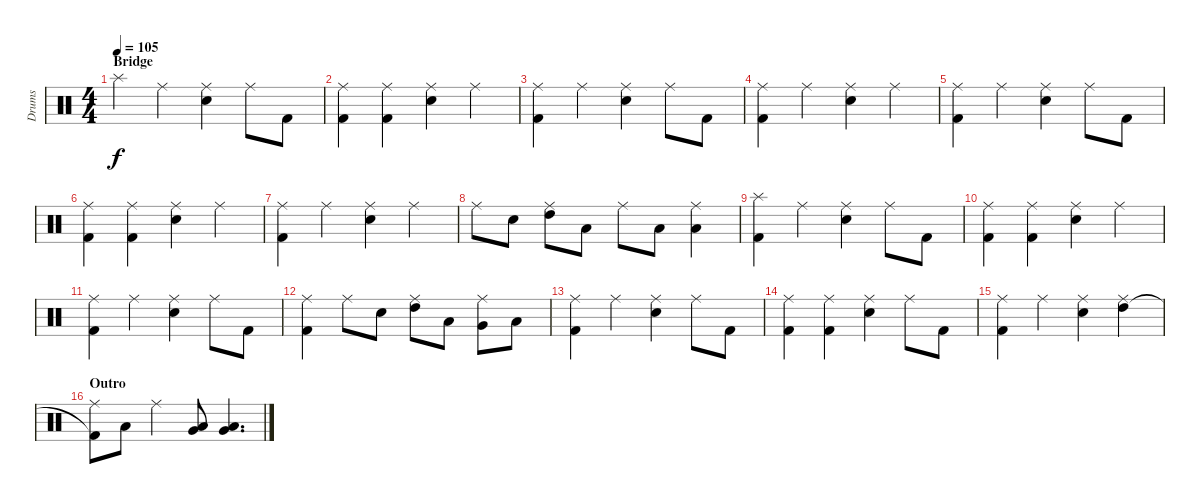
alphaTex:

\track ("Drums" "Drums") {instrument percussion}
\staff {score}
\articulation defaults
\ts (4 4)
\section ("" "Bridge")
\tempo 105
\clef neutral
\ks c "Splash (hit)".4{dy f} "Ride (middle)".4
("Ride (middle)" "Electric Snare (hit)").4 "Ride (middle)".8 "Kick (hit) 2".8 |
("Ride (middle)" "Kick (hit) 2").4 ("Ride (middle)" "Kick (hit) 2").4 ("Ride (middle)" "Electric Snare (hit)").4 "Ride (middle)".4 |
("Ride (middle)" "Kick (hit) 2").4 "Ride (middle)".4 ("Ride (middle)" "Electric Snare (hit)").4 "Ride (middle)".8 "Kick (hit) 2".8 |
("Ride (middle)" "Kick (hit) 2").4 "Ride (middle)".4 ("Ride (middle)" "Electric Snare (hit)").4 "Ride (middle)".4 |
("Ride (middle)" "Kick (hit) 2").4 "Ride (middle)".4 ("Ride (middle)" "Electric Snare (hit)").4 "Ride (middle)".8 "Kick (hit) 2".8 |
("Ride (middle)" "Kick (hit) 2").4 ("Ride (middle)" "Kick (hit) 2").4 ("Ride (middle)" "Electric Snare (hit)").4 "Ride (middle)".4 |
("Ride (middle)" "Kick (hit) 2").4 "Ride (middle)".4 ("Ride (middle)" "Electric Snare (hit)").4 "Ride (middle)".4 |
"Ride (middle)".8 "Electric Snare (hit)".8 ("Ride (middle)" "High Tom (hit)").8 "Low Tom (hit)".8 "Ride (middle)".8 "Low Tom (hit)".8 ("Ride (middle)" "Low Floor Tom (hit)").4 |
("Splash (hit)" "Kick (hit) 2").4 "Ride (middle)".4 ("Ride (middle)" "Electric Snare (hit)").4 "Ride (middle)".8 "Kick (hit) 2".8 |
("Ride (middle)" "Kick (hit) 2").4 ("Ride (middle)" "Kick (hit) 2").4 ("Ride (middle)" "Electric Snare (hit)").4 "Ride (middle)".4 |
("Ride (middle)" "Kick (hit) 2").4 "Ride (middle)".4 ("Ride (middle)" "Electric Snare (hit)").4 "Ride (middle)".8 "Kick (hit) 2".8 |
("Ride (middle)" "Kick (hit) 2").4 "Ride (middle)".8 "Electric Snare (hit)".8 ("Ride (middle)" "High Tom (hit)").8 "Low Tom (hit)".8 ("Ride (middle)" "Very Low Tom (hit)").8 "Low Floor Tom (hit)".8 |
("Ride (middle)" "Kick (hit) 2").4 "Ride (middle)".4 ("Ride (middle)" "Electric Snare (hit)").4 "Ride (middle)".8 "Kick (hit) 2".8 |
("Ride (middle)" "Kick (hit) 2").4 ("Ride (middle)" "Kick (hit) 2").4 ("Ride (middle)" "Electric Snare (hit)").4 "Ride (middle)".8 "Kick (hit) 2".8 |
("Ride (middle)" "Kick (hit) 2").4 "Ride (middle)".4 ("Ride (middle)" "Electric Snare (hit)").4 ("Ride (middle)" "High Tom (hit)").4 |
\section ("" "Outro")
("Ride (middle)" "Kick (hit) 2"{t}).8 "Low Tom (hit)".8 "Ride (middle)".4 ("Low Tom (hit)" "Very Low Tom (hit)").8 ("Very Low Tom (hit)" "Low Floor Tom (hit)").4{d}
